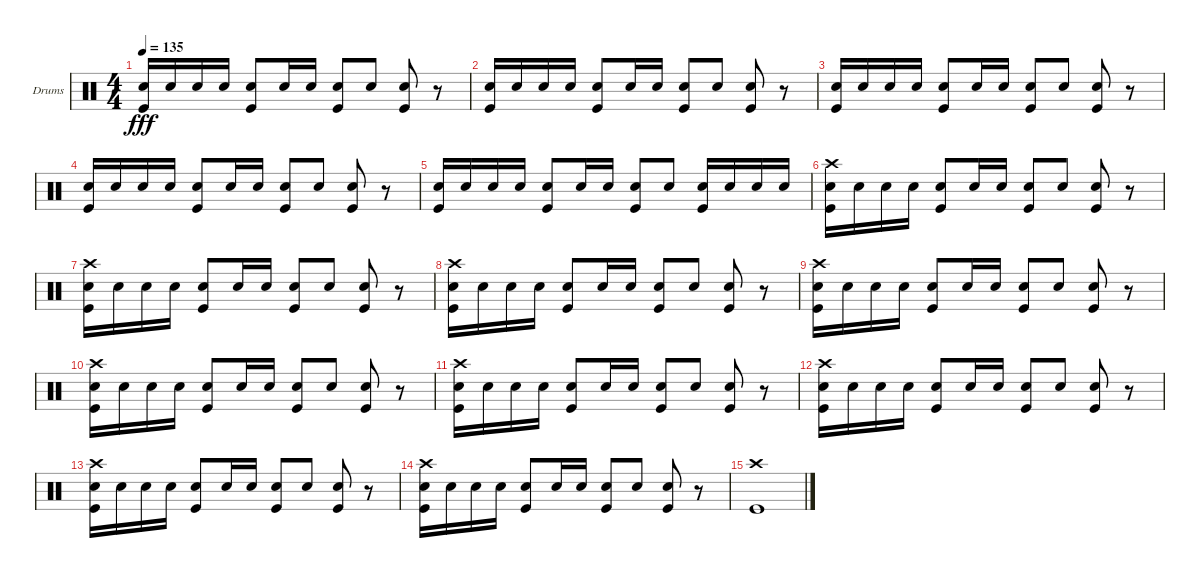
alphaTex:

\bracketExtendMode groupsimilarinstruments
\firstSystemTrackNameOrientation horizontal
\otherSystemsTrackNameOrientation horizontal
\track ("Ударные" "Drums") {instrument percussion}
\staff {score}
\articulation defaults
\ts (4 4)
\tempo 135
\clef neutral
\ks c
("Snare (hit) 2" "Kick (hit)").16{dy fff} "Snare (hit) 2".16 "Snare (hit) 2".16 "Snare (hit) 2".16 ("Snare (hit) 2" "Kick (hit)").8 "Snare (hit) 2".16 "Snare (hit) 2".16 ("Snare (hit) 2" "Kick (hit)").8 "Snare (hit) 2".8 ("Snare (hit) 2" "Kick (hit)").8 r.8 |
("Snare (hit) 2" "Kick (hit)").16 "Snare (hit) 2".16 "Snare (hit) 2".16 "Snare (hit) 2".16 ("Snare (hit) 2" "Kick (hit)").8 "Snare (hit) 2".16 "Snare (hit) 2".16 ("Snare (hit) 2" "Kick (hit)").8 "Snare (hit) 2".8 ("Snare (hit) 2" "Kick (hit)").8 r.8 |
("Snare (hit) 2" "Kick (hit)").16 "Snare (hit) 2".16 "Snare (hit) 2".16 "Snare (hit) 2".16 ("Snare (hit) 2" "Kick (hit)").8 "Snare (hit) 2".16 "Snare (hit) 2".16 ("Snare (hit) 2" "Kick (hit)").8 "Snare (hit) 2".8 ("Snare (hit) 2" "Kick (hit)").8 r.8 |
("Snare (hit) 2" "Kick (hit)").16 "Snare (hit) 2".16 "Snare (hit) 2".16 "Snare (hit) 2".16 ("Snare (hit) 2" "Kick (hit)").8 "Snare (hit) 2".16 "Snare (hit) 2".16 ("Snare (hit) 2" "Kick (hit)").8 "Snare (hit) 2".8 ("Snare (hit) 2" "Kick (hit)").8 r.8 |
("Snare (hit) 2" "Kick (hit)").16 "Snare (hit) 2".16 "Snare (hit) 2".16 "Snare (hit) 2".16 ("Snare (hit) 2" "Kick (hit)").8 "Snare (hit) 2".16 "Snare (hit) 2".16 ("Snare (hit) 2" "Kick (hit)").8 "Snare (hit) 2".8 ("Snare (hit) 2" "Kick (hit)").16 "Snare (hit) 2".16 "Snare (hit) 2".16 "Snare (hit) 2".16 |
("Crash high (hit)" "Snare (hit) 2" "Kick (hit)").16 "Snare (hit) 2".16 "Snare (hit) 2".16 "Snare (hit) 2".16 ("Snare (hit) 2" "Kick (hit)").8 "Snare (hit) 2".16 "Snare (hit) 2".16 ("Snare (hit) 2" "Kick (hit)").8 "Snare (hit) 2".8 ("Snare (hit) 2" "Kick (hit)").8 r.8 |
("Crash high (hit)" "Snare (hit) 2" "Kick (hit)").16 "Snare (hit) 2".16 "Snare (hit) 2".16 "Snare (hit) 2".16 ("Snare (hit) 2" "Kick (hit)").8 "Snare (hit) 2".16 "Snare (hit) 2".16 ("Snare (hit) 2" "Kick (hit)").8 "Snare (hit) 2".8 ("Snare (hit) 2" "Kick (hit)").8 r.8 |
("Crash high (hit)" "Snare (hit) 2" "Kick (hit)").16 "Snare (hit) 2".16 "Snare (hit) 2".16 "Snare (hit) 2".16 ("Snare (hit) 2" "Kick (hit)").8 "Snare (hit) 2".16 "Snare (hit) 2".16 ("Snare (hit) 2" "Kick (hit)").8 "Snare (hit) 2".8 ("Snare (hit) 2" "Kick (hit)").8 r.8 |
("Crash high (hit)" "Snare (hit) 2" "Kick (hit)").16 "Snare (hit) 2".16 "Snare (hit) 2".16 "Snare (hit) 2".16 ("Snare (hit) 2" "Kick (hit)").8 "Snare (hit) 2".16 "Snare (hit) 2".16 ("Snare (hit) 2" "Kick (hit)").8 "Snare (hit) 2".8 ("Snare (hit) 2" "Kick (hit)").8 r.8 |
("Crash high (hit)" "Snare (hit) 2" "Kick (hit)").16 "Snare (hit) 2".16 "Snare (hit) 2".16 "Snare (hit) 2".16 ("Snare (hit) 2" "Kick (hit)").8 "Snare (hit) 2".16 "Snare (hit) 2".16 ("Snare (hit) 2" "Kick (hit)").8 "Snare (hit) 2".8 ("Snare (hit) 2" "Kick (hit)").8 r.8 |
("Crash high (hit)" "Snare (hit) 2" "Kick (hit)").16 "Snare (hit) 2".16 "Snare (hit) 2".16 "Snare (hit) 2".16 ("Snare (hit) 2" "Kick (hit)").8 "Snare (hit) 2".16 "Snare (hit) 2".16 ("Snare (hit) 2" "Kick (hit)").8 "Snare (hit) 2".8 ("Snare (hit) 2" "Kick (hit)").8 r.8 |
("Crash high (hit)" "Snare (hit) 2" "Kick (hit)").16 "Snare (hit) 2".16 "Snare (hit) 2".16 "Snare (hit) 2".16 ("Snare (hit) 2" "Kick (hit)").8 "Snare (hit) 2".16 "Snare (hit) 2".16 ("Snare (hit) 2" "Kick (hit)").8 "Snare (hit) 2".8 ("Snare (hit) 2" "Kick (hit)").8 r.8 |
("Crash high (hit)" "Snare (hit) 2" "Kick (hit)").16 "Snare (hit) 2".16 "Snare (hit) 2".16 "Snare (hit) 2".16 ("Snare (hit) 2" "Kick (hit)").8 "Snare (hit) 2".16 "Snare (hit) 2".16 ("Snare (hit) 2" "Kick (hit)").8 "Snare (hit) 2".8 ("Snare (hit) 2" "Kick (hit)").8 r.8 |
("Crash high (hit)" "Snare (hit) 2" "Kick (hit)").16 "Snare (hit) 2".16 "Snare (hit) 2".16 "Snare (hit) 2".16 ("Snare (hit) 2" "Kick (hit)").8 "Snare (hit) 2".16 "Snare (hit) 2".16 ("Snare (hit) 2" "Kick (hit)").8 "Snare (hit) 2".8 ("Snare (hit) 2" "Kick (hit)").8 r.8 |
("Crash high (hit)" "Kick (hit)").1
